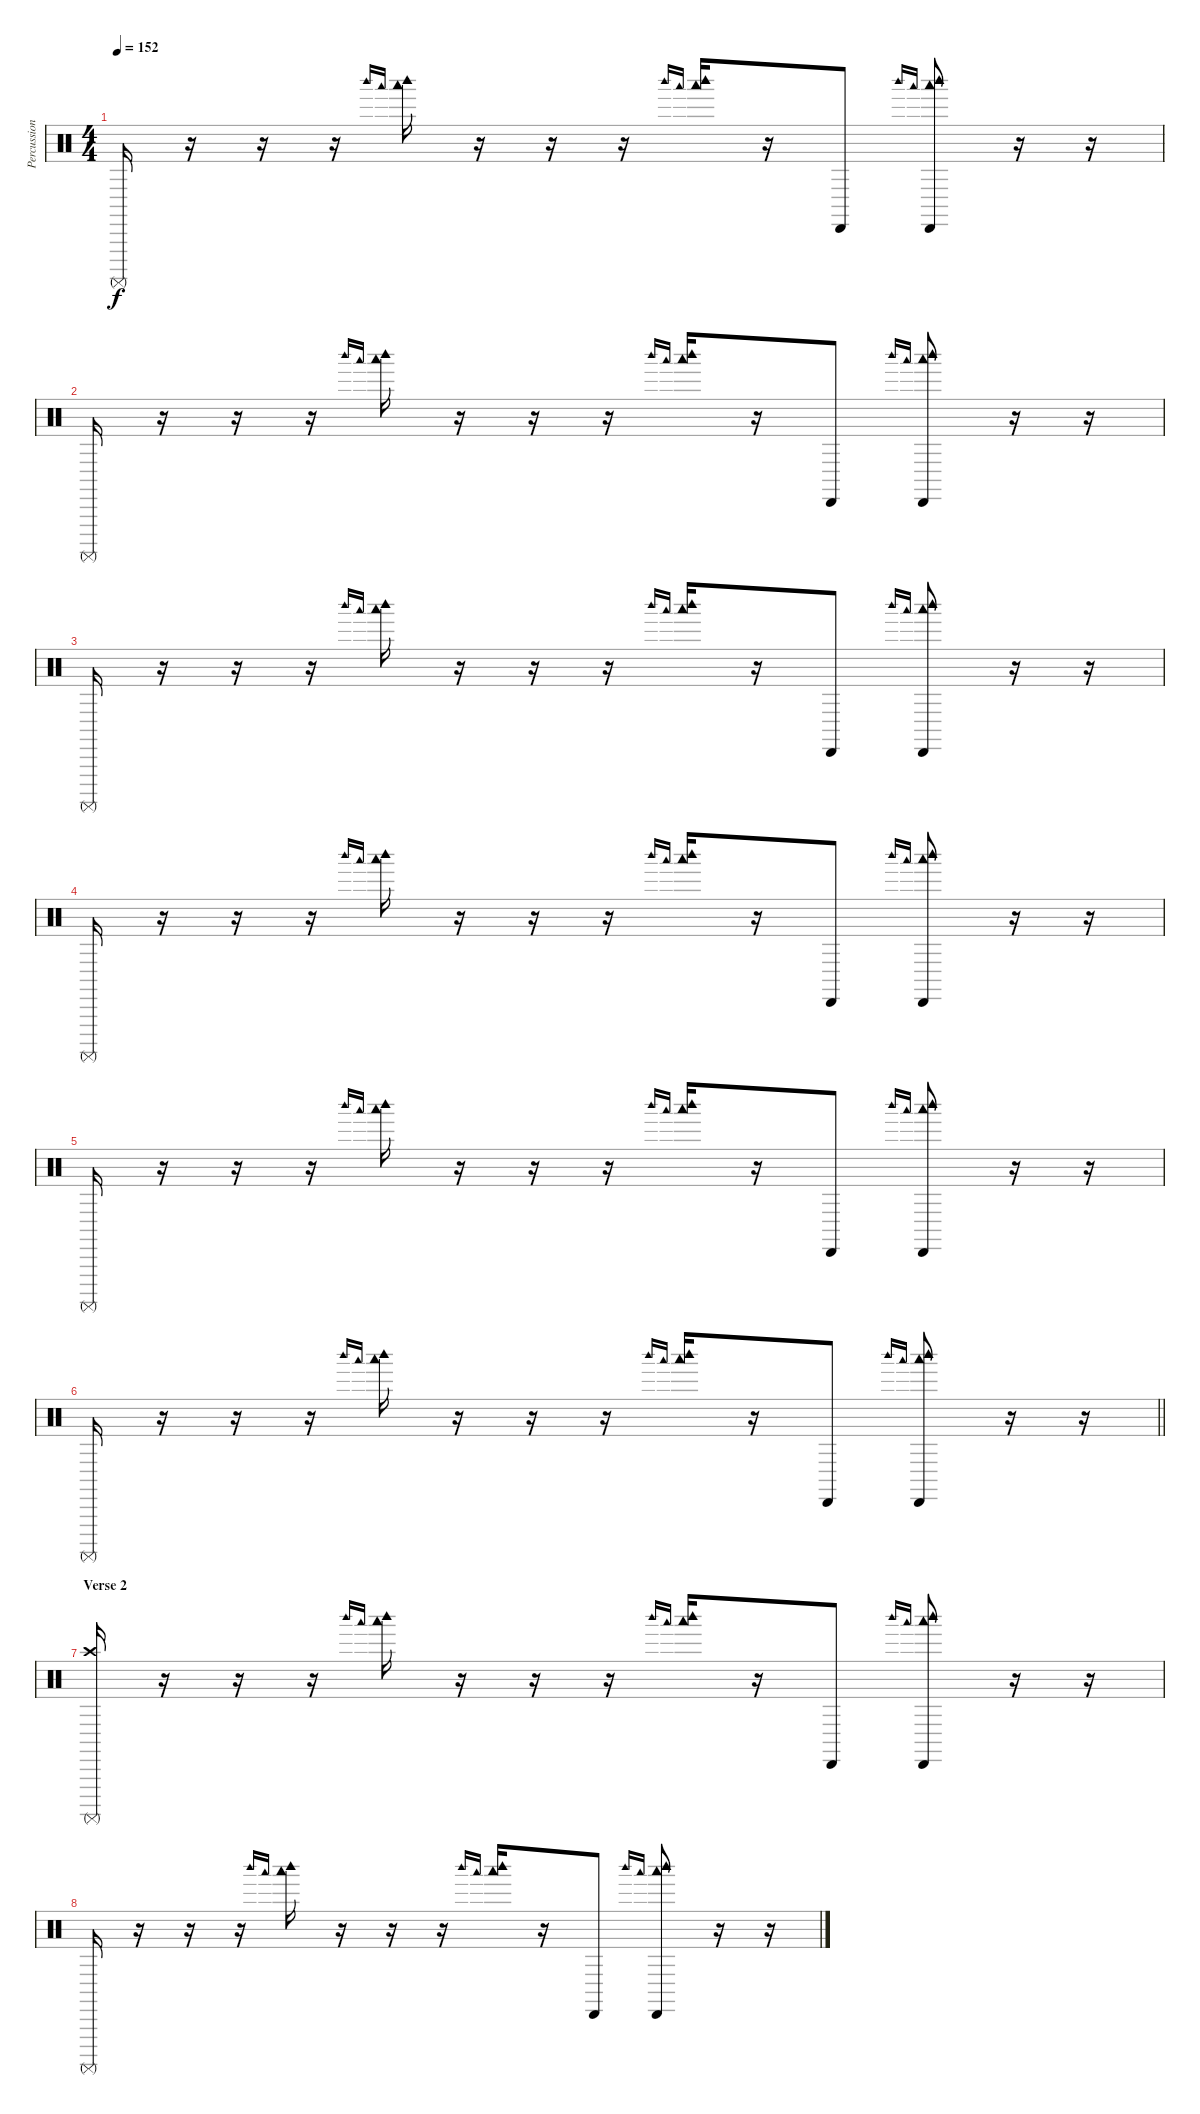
\track ("Percussion" "Percussion") {instrument percussion}
\staff {score}
\articulation defaults
\ts (4 4)
\tempo 152
\clef neutral
\ks c "Surdo (mute)".16{dy f}
r.16 r.16 r.16 "Woodblock high (hit)".16{gr onbeat} "Woodblock low (hit)".16{gr onbeat} ("Woodblock high (hit)" "Woodblock low (hit)").16 r.16 r.16 r.16 "Woodblock high (hit)".16{gr onbeat} "Woodblock low (hit)".16{gr onbeat} ("Woodblock high (hit)" "Woodblock low (hit)").16 r.16 "Cabasa (hit)".8 "Woodblock high (hit)".16{gr onbeat} "Woodblock low (hit)".16{gr onbeat} ("Cabasa (hit)" "Woodblock high (hit)" "Woodblock low (hit)").8 r.16 r.16 |
"Surdo (mute)".16 r.16 r.16 r.16 "Woodblock high (hit)".16{gr onbeat} "Woodblock low (hit)".16{gr onbeat} ("Woodblock high (hit)" "Woodblock low (hit)").16 r.16 r.16 r.16 "Woodblock high (hit)".16{gr onbeat} "Woodblock low (hit)".16{gr onbeat} ("Woodblock high (hit)" "Woodblock low (hit)").16 r.16 "Cabasa (hit)".8 "Woodblock high (hit)".16{gr onbeat} "Woodblock low (hit)".16{gr onbeat} ("Cabasa (hit)" "Woodblock high (hit)" "Woodblock low (hit)").8 r.16 r.16 |
"Surdo (mute)".16 r.16 r.16 r.16 "Woodblock high (hit)".16{gr onbeat} "Woodblock low (hit)".16{gr onbeat} ("Woodblock high (hit)" "Woodblock low (hit)").16 r.16 r.16 r.16 "Woodblock high (hit)".16{gr onbeat} "Woodblock low (hit)".16{gr onbeat} ("Woodblock high (hit)" "Woodblock low (hit)").16 r.16 "Cabasa (hit)".8 "Woodblock high (hit)".16{gr onbeat} "Woodblock low (hit)".16{gr onbeat} ("Cabasa (hit)" "Woodblock high (hit)" "Woodblock low (hit)").8 r.16 r.16 |
"Surdo (mute)".16 r.16 r.16 r.16 "Woodblock high (hit)".16{gr onbeat} "Woodblock low (hit)".16{gr onbeat} ("Woodblock high (hit)" "Woodblock low (hit)").16 r.16 r.16 r.16 "Woodblock high (hit)".16{gr onbeat} "Woodblock low (hit)".16{gr onbeat} ("Woodblock high (hit)" "Woodblock low (hit)").16 r.16 "Cabasa (hit)".8 "Woodblock high (hit)".16{gr onbeat} "Woodblock low (hit)".16{gr onbeat} ("Cabasa (hit)" "Woodblock high (hit)" "Woodblock low (hit)").8 r.16 r.16 |
"Surdo (mute)".16 r.16 r.16 r.16 "Woodblock high (hit)".16{gr onbeat} "Woodblock low (hit)".16{gr onbeat} ("Woodblock high (hit)" "Woodblock low (hit)").16 r.16 r.16 r.16 "Woodblock high (hit)".16{gr onbeat} "Woodblock low (hit)".16{gr onbeat} ("Woodblock high (hit)" "Woodblock low (hit)").16 r.16 "Cabasa (hit)".8 "Woodblock high (hit)".16{gr onbeat} "Woodblock low (hit)".16{gr onbeat} ("Cabasa (hit)" "Woodblock high (hit)" "Woodblock low (hit)").8 r.16 r.16 |
\barLineRight lightlight "Surdo (mute)".16
r.16 r.16 r.16 "Woodblock high (hit)".16{gr onbeat} "Woodblock low (hit)".16{gr onbeat} ("Woodblock high (hit)" "Woodblock low (hit)").16 r.16 r.16 r.16 "Woodblock high (hit)".16{gr onbeat} "Woodblock low (hit)".16{gr onbeat} ("Woodblock high (hit)" "Woodblock low (hit)").16 r.16 "Cabasa (hit)".8 "Woodblock high (hit)".16{gr onbeat} "Woodblock low (hit)".16{gr onbeat} ("Cabasa (hit)" "Woodblock high (hit)" "Woodblock low (hit)").8 r.16 r.16 |
\section ("" "Verse 2")
("Crash high (hit)" "Surdo (mute)").16 r.16 r.16 r.16 "Woodblock high (hit)".16{gr onbeat} "Woodblock low (hit)".16{gr onbeat} ("Woodblock high (hit)" "Woodblock low (hit)").16 r.16 r.16 r.16 "Woodblock high (hit)".16{gr onbeat} "Woodblock low (hit)".16{gr onbeat} ("Woodblock high (hit)" "Woodblock low (hit)").16 r.16 "Cabasa (hit)".8 "Woodblock high (hit)".16{gr onbeat} "Woodblock low (hit)".16{gr onbeat} ("Cabasa (hit)" "Woodblock high (hit)" "Woodblock low (hit)").8 r.16 r.16 |
"Surdo (mute)".16 r.16 r.16 r.16 "Woodblock high (hit)".16{gr onbeat} "Woodblock low (hit)".16{gr onbeat} ("Woodblock high (hit)" "Woodblock low (hit)").16 r.16 r.16 r.16 "Woodblock high (hit)".16{gr onbeat} "Woodblock low (hit)".16{gr onbeat} ("Woodblock high (hit)" "Woodblock low (hit)").16 r.16 "Cabasa (hit)".8 "Woodblock high (hit)".16{gr onbeat} "Woodblock low (hit)".16{gr onbeat} ("Cabasa (hit)" "Woodblock high (hit)" "Woodblock low (hit)").8 r.16 r.16
